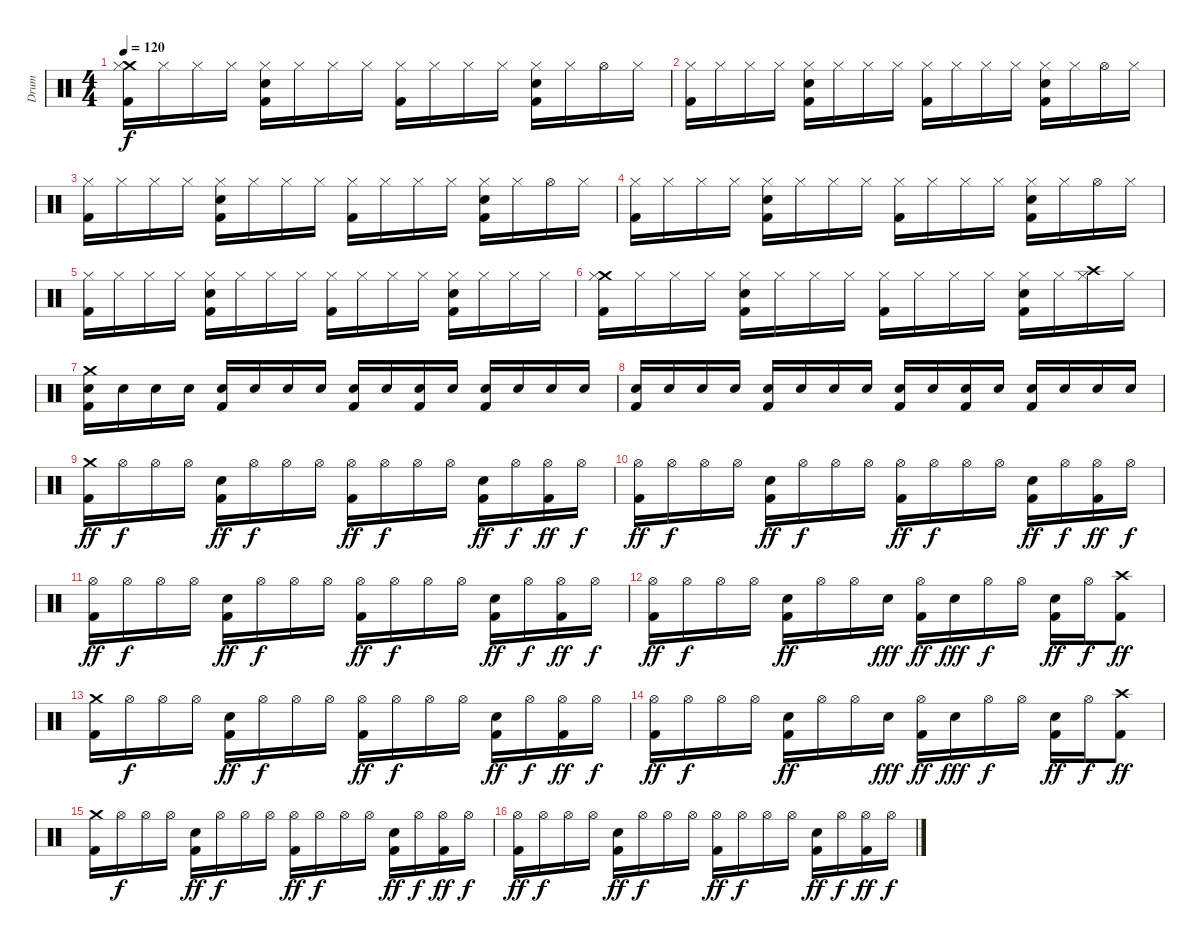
\track ("Drum" "Drum") {instrument percussion}
\staff {score}
\articulation defaults
\ts (4 4)
\tempo 120
\clef neutral
\ks c
("Crash medium (hit)" "Hi-Hat (closed)" "Kick (hit) 2").16{dy f} "Hi-Hat (closed)".16 "Hi-Hat (closed)".16 "Hi-Hat (closed)".16 ("Hi-Hat (closed)" "Kick (hit) 2" "Electric Snare (hit)").16 "Hi-Hat (closed)".16 "Hi-Hat (closed)".16 "Hi-Hat (closed)".16 ("Hi-Hat (closed)" "Kick (hit) 2").16 "Hi-Hat (closed)".16 "Hi-Hat (closed)".16 "Hi-Hat (closed)".16 ("Hi-Hat (closed)" "Kick (hit) 2" "Electric Snare (hit)").16 "Hi-Hat (closed)".16 "Hi-Hat (open)".16 "Hi-Hat (closed)".16 |
("Hi-Hat (closed)" "Kick (hit) 2").16 "Hi-Hat (closed)".16 "Hi-Hat (closed)".16 "Hi-Hat (closed)".16 ("Hi-Hat (closed)" "Kick (hit) 2" "Electric Snare (hit)").16 "Hi-Hat (closed)".16 "Hi-Hat (closed)".16 "Hi-Hat (closed)".16 ("Hi-Hat (closed)" "Kick (hit) 2").16 "Hi-Hat (closed)".16 "Hi-Hat (closed)".16 "Hi-Hat (closed)".16 ("Hi-Hat (closed)" "Kick (hit) 2" "Electric Snare (hit)").16 "Hi-Hat (closed)".16 "Hi-Hat (open)".16 "Hi-Hat (closed)".16 |
("Hi-Hat (closed)" "Kick (hit) 2").16 "Hi-Hat (closed)".16 "Hi-Hat (closed)".16 "Hi-Hat (closed)".16 ("Hi-Hat (closed)" "Kick (hit) 2" "Electric Snare (hit)").16 "Hi-Hat (closed)".16 "Hi-Hat (closed)".16 "Hi-Hat (closed)".16 ("Hi-Hat (closed)" "Kick (hit) 2").16 "Hi-Hat (closed)".16 "Hi-Hat (closed)".16 "Hi-Hat (closed)".16 ("Hi-Hat (closed)" "Kick (hit) 2" "Electric Snare (hit)").16 "Hi-Hat (closed)".16 "Hi-Hat (open)".16 "Hi-Hat (closed)".16 |
("Hi-Hat (closed)" "Kick (hit) 2").16 "Hi-Hat (closed)".16 "Hi-Hat (closed)".16 "Hi-Hat (closed)".16 ("Hi-Hat (closed)" "Kick (hit) 2" "Electric Snare (hit)").16 "Hi-Hat (closed)".16 "Hi-Hat (closed)".16 "Hi-Hat (closed)".16 ("Hi-Hat (closed)" "Kick (hit) 2").16 "Hi-Hat (closed)".16 "Hi-Hat (closed)".16 "Hi-Hat (closed)".16 ("Hi-Hat (closed)" "Kick (hit) 2" "Electric Snare (hit)").16 "Hi-Hat (closed)".16 "Hi-Hat (open)".16 "Hi-Hat (closed)".16 |
("Hi-Hat (closed)" "Kick (hit) 2").16 "Hi-Hat (closed)".16 "Hi-Hat (closed)".16 "Hi-Hat (closed)".16 ("Hi-Hat (closed)" "Kick (hit) 2" "Electric Snare (hit)").16 "Hi-Hat (closed)".16 "Hi-Hat (closed)".16 "Hi-Hat (closed)".16 ("Hi-Hat (closed)" "Kick (hit) 2").16 "Hi-Hat (closed)".16 "Hi-Hat (closed)".16 "Hi-Hat (closed)".16 ("Hi-Hat (closed)" "Kick (hit) 2" "Electric Snare (hit)").16 "Hi-Hat (closed)".16 "Hi-Hat (closed)".16 "Hi-Hat (closed)".16 |
("Crash medium (hit)" "Hi-Hat (closed)" "Kick (hit) 2").16 "Hi-Hat (closed)".16 "Hi-Hat (closed)".16 "Hi-Hat (closed)".16 ("Hi-Hat (closed)" "Kick (hit) 2" "Electric Snare (hit)").16 "Hi-Hat (closed)".16 "Hi-Hat (closed)".16 "Hi-Hat (closed)".16 ("Hi-Hat (closed)" "Kick (hit) 2").16 "Hi-Hat (closed)".16 "Hi-Hat (closed)".16 "Hi-Hat (closed)".16 ("Hi-Hat (closed)" "Kick (hit) 2" "Electric Snare (hit)").16 "Hi-Hat (closed)".16 ("Crash high (hit)" "Hi-Hat (closed)").16 "Hi-Hat (closed)".16 |
("Electric Snare (hit)" "Crash medium (hit)" "Kick (hit) 2").16{volume 16} "Electric Snare (hit)".16 "Electric Snare (hit)".16 "Electric Snare (hit)".16 ("Electric Snare (hit)" "Kick (hit) 2").16 "Electric Snare (hit)".16 "Electric Snare (hit)".16 "Electric Snare (hit)".16 ("Electric Snare (hit)" "Kick (hit) 2").16 "Electric Snare (hit)".16 ("Electric Snare (hit)" "Kick (hit) 2").16 "Electric Snare (hit)".16 ("Electric Snare (hit)" "Kick (hit) 2").16 "Electric Snare (hit)".16 "Electric Snare (hit)".16 "Electric Snare (hit)".16 |
("Electric Snare (hit)" "Kick (hit) 2").16 "Electric Snare (hit)".16 "Electric Snare (hit)".16 "Electric Snare (hit)".16 ("Electric Snare (hit)" "Kick (hit) 2").16 "Electric Snare (hit)".16 "Electric Snare (hit)".16 "Electric Snare (hit)".16 ("Electric Snare (hit)" "Kick (hit) 2").16 "Electric Snare (hit)".16 ("Electric Snare (hit)" "Kick (hit) 2").16 "Electric Snare (hit)".16 ("Electric Snare (hit)" "Kick (hit) 2").16 "Electric Snare (hit)".16 "Electric Snare (hit)".16 "Electric Snare (hit)".16 |
("Crash medium (hit)" "Kick (hit) 2").16{dy ff volume 13} "Hi-Hat (open)".16{dy f} "Hi-Hat (open)".16 "Hi-Hat (open)".16 ("Kick (hit) 2" "Electric Snare (hit)").16{dy ff} "Hi-Hat (open)".16{dy f} "Hi-Hat (open)".16 "Hi-Hat (open)".16 ("Hi-Hat (open)" "Kick (hit) 2").16{dy ff} "Hi-Hat (open)".16{dy f} "Hi-Hat (open)".16 "Hi-Hat (open)".16 ("Kick (hit) 2" "Electric Snare (hit)").16{dy ff} "Hi-Hat (open)".16{dy f} ("Hi-Hat (open)" "Kick (hit) 2").16{dy ff} "Hi-Hat (open)".16{dy f} |
("Hi-Hat (open)" "Kick (hit) 2").16{dy ff} "Hi-Hat (open)".16{dy f} "Hi-Hat (open)".16 "Hi-Hat (open)".16 ("Kick (hit) 2" "Electric Snare (hit)").16{dy ff} "Hi-Hat (open)".16{dy f} "Hi-Hat (open)".16 "Hi-Hat (open)".16 ("Hi-Hat (open)" "Kick (hit) 2").16{dy ff} "Hi-Hat (open)".16{dy f} "Hi-Hat (open)".16 "Hi-Hat (open)".16 ("Kick (hit) 2" "Electric Snare (hit)").16{dy ff} "Hi-Hat (open)".16{dy f} ("Hi-Hat (open)" "Kick (hit) 2").16{dy ff} "Hi-Hat (open)".16{dy f} |
("Hi-Hat (open)" "Kick (hit) 2").16{dy ff} "Hi-Hat (open)".16{dy f} "Hi-Hat (open)".16 "Hi-Hat (open)".16 ("Kick (hit) 2" "Electric Snare (hit)").16{dy ff} "Hi-Hat (open)".16{dy f} "Hi-Hat (open)".16 "Hi-Hat (open)".16 ("Hi-Hat (open)" "Kick (hit) 2").16{dy ff} "Hi-Hat (open)".16{dy f} "Hi-Hat (open)".16 "Hi-Hat (open)".16 ("Kick (hit) 2" "Electric Snare (hit)").16{dy ff} "Hi-Hat (open)".16{dy f} ("Hi-Hat (open)" "Kick (hit) 2").16{dy ff} "Hi-Hat (open)".16{dy f} |
("Hi-Hat (open)" "Kick (hit) 2").16{dy ff} "Hi-Hat (open)".16{dy f} "Hi-Hat (open)".16 "Hi-Hat (open)".16 ("Kick (hit) 2" "Electric Snare (hit)").16{dy ff} "Hi-Hat (open)".16 "Hi-Hat (open)".16 "Electric Snare (hit)".16{dy fff} ("Hi-Hat (open)" "Kick (hit) 2").16{dy ff} "Electric Snare (hit)".16{dy fff} "Hi-Hat (open)".16{dy f} "Hi-Hat (open)".16 ("Kick (hit) 2" "Electric Snare (hit)").16{dy ff} "Hi-Hat (open)".16{dy f} ("Crash high (hit)" "Kick (hit) 2").8{dy ff} |
("Crash medium (hit)" "Kick (hit) 2").16 "Hi-Hat (open)".16{dy f} "Hi-Hat (open)".16 "Hi-Hat (open)".16 ("Kick (hit) 2" "Electric Snare (hit)").16{dy ff} "Hi-Hat (open)".16{dy f} "Hi-Hat (open)".16 "Hi-Hat (open)".16 ("Hi-Hat (open)" "Kick (hit) 2").16{dy ff} "Hi-Hat (open)".16{dy f} "Hi-Hat (open)".16 "Hi-Hat (open)".16 ("Kick (hit) 2" "Electric Snare (hit)").16{dy ff} "Hi-Hat (open)".16{dy f} ("Hi-Hat (open)" "Kick (hit) 2").16{dy ff} "Hi-Hat (open)".16{dy f} |
("Hi-Hat (open)" "Kick (hit) 2").16{dy ff} "Hi-Hat (open)".16{dy f} "Hi-Hat (open)".16 "Hi-Hat (open)".16 ("Kick (hit) 2" "Electric Snare (hit)").16{dy ff} "Hi-Hat (open)".16 "Hi-Hat (open)".16 "Electric Snare (hit)".16{dy fff} ("Hi-Hat (open)" "Kick (hit) 2").16{dy ff} "Electric Snare (hit)".16{dy fff} "Hi-Hat (open)".16{dy f} "Hi-Hat (open)".16 ("Kick (hit) 2" "Electric Snare (hit)").16{dy ff} "Hi-Hat (open)".16{dy f} ("Crash high (hit)" "Kick (hit) 2").8{dy ff} |
("Crash medium (hit)" "Kick (hit) 2").16 "Hi-Hat (open)".16{dy f} "Hi-Hat (open)".16 "Hi-Hat (open)".16 ("Kick (hit) 2" "Electric Snare (hit)").16{dy ff} "Hi-Hat (open)".16{dy f} "Hi-Hat (open)".16 "Hi-Hat (open)".16 ("Hi-Hat (open)" "Kick (hit) 2").16{dy ff} "Hi-Hat (open)".16{dy f} "Hi-Hat (open)".16 "Hi-Hat (open)".16 ("Kick (hit) 2" "Electric Snare (hit)").16{dy ff} "Hi-Hat (open)".16{dy f} ("Hi-Hat (open)" "Kick (hit) 2").16{dy ff} "Hi-Hat (open)".16{dy f} |
("Hi-Hat (open)" "Kick (hit) 2").16{dy ff} "Hi-Hat (open)".16{dy f} "Hi-Hat (open)".16 "Hi-Hat (open)".16 ("Kick (hit) 2" "Electric Snare (hit)").16{dy ff} "Hi-Hat (open)".16{dy f} "Hi-Hat (open)".16 "Hi-Hat (open)".16 ("Hi-Hat (open)" "Kick (hit) 2").16{dy ff} "Hi-Hat (open)".16{dy f} "Hi-Hat (open)".16 "Hi-Hat (open)".16 ("Kick (hit) 2" "Electric Snare (hit)").16{dy ff} "Hi-Hat (open)".16{dy f} ("Hi-Hat (open)" "Kick (hit) 2").16{dy ff} "Hi-Hat (open)".16{dy f}
